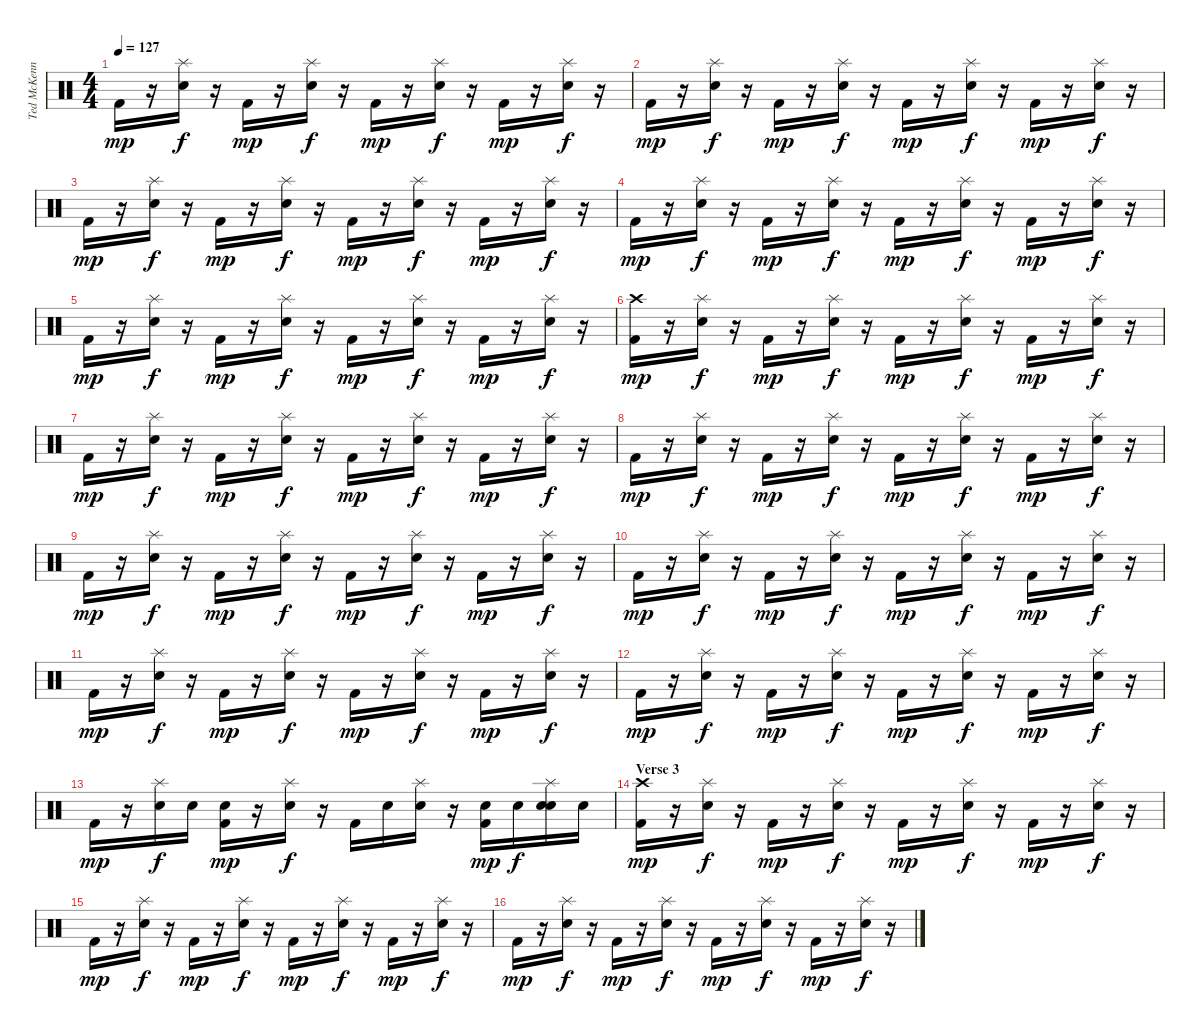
\track ("Ted McKenna" "Ted McKenn") {instrument percussion}
\staff {score}
\articulation defaults
\ts (4 4)
\tempo 127
\clef neutral
\ks c "Kick (hit) 2".16{dy mp}
r.16 ("Splash (hit)" "Snare (hit) 2").16{dy f} r.16 "Kick (hit) 2".16{dy mp} r.16 ("Splash (hit)" "Snare (hit) 2").16{dy f} r.16 "Kick (hit) 2".16{dy mp} r.16 ("Splash (hit)" "Snare (hit) 2").16{dy f} r.16 "Kick (hit) 2".16{dy mp} r.16 ("Splash (hit)" "Snare (hit) 2").16{dy f} r.16 |
"Kick (hit) 2".16{dy mp} r.16 ("Splash (hit)" "Snare (hit) 2").16{dy f} r.16 "Kick (hit) 2".16{dy mp} r.16 ("Splash (hit)" "Snare (hit) 2").16{dy f} r.16 "Kick (hit) 2".16{dy mp} r.16 ("Splash (hit)" "Snare (hit) 2").16{dy f} r.16 "Kick (hit) 2".16{dy mp} r.16 ("Splash (hit)" "Snare (hit) 2").16{dy f} r.16 |
"Kick (hit) 2".16{dy mp} r.16 ("Splash (hit)" "Snare (hit) 2").16{dy f} r.16 "Kick (hit) 2".16{dy mp} r.16 ("Splash (hit)" "Snare (hit) 2").16{dy f} r.16 "Kick (hit) 2".16{dy mp} r.16 ("Splash (hit)" "Snare (hit) 2").16{dy f} r.16 "Kick (hit) 2".16{dy mp} r.16 ("Splash (hit)" "Snare (hit) 2").16{dy f} r.16 |
"Kick (hit) 2".16{dy mp} r.16 ("Splash (hit)" "Snare (hit) 2").16{dy f} r.16 "Kick (hit) 2".16{dy mp} r.16 ("Splash (hit)" "Snare (hit) 2").16{dy f} r.16 "Kick (hit) 2".16{dy mp} r.16 ("Splash (hit)" "Snare (hit) 2").16{dy f} r.16 "Kick (hit) 2".16{dy mp} r.16 ("Splash (hit)" "Snare (hit) 2").16{dy f} r.16 |
"Kick (hit) 2".16{dy mp} r.16 ("Splash (hit)" "Snare (hit) 2").16{dy f} r.16 "Kick (hit) 2".16{dy mp} r.16 ("Splash (hit)" "Snare (hit) 2").16{dy f} r.16 "Kick (hit) 2".16{dy mp} r.16 ("Splash (hit)" "Snare (hit) 2").16{dy f} r.16 "Kick (hit) 2".16{dy mp} r.16 ("Splash (hit)" "Snare (hit) 2").16{dy f} r.16 |
("Crash high (hit)" "Kick (hit) 2").16{dy mp} r.16 ("Splash (hit)" "Snare (hit) 2").16{dy f} r.16 "Kick (hit) 2".16{dy mp} r.16 ("Splash (hit)" "Snare (hit) 2").16{dy f} r.16 "Kick (hit) 2".16{dy mp} r.16 ("Splash (hit)" "Snare (hit) 2").16{dy f} r.16 "Kick (hit) 2".16{dy mp} r.16 ("Splash (hit)" "Snare (hit) 2").16{dy f} r.16 |
"Kick (hit) 2".16{dy mp} r.16 ("Splash (hit)" "Snare (hit) 2").16{dy f} r.16 "Kick (hit) 2".16{dy mp} r.16 ("Splash (hit)" "Snare (hit) 2").16{dy f} r.16 "Kick (hit) 2".16{dy mp} r.16 ("Splash (hit)" "Snare (hit) 2").16{dy f} r.16 "Kick (hit) 2".16{dy mp} r.16 ("Splash (hit)" "Snare (hit) 2").16{dy f} r.16 |
"Kick (hit) 2".16{dy mp} r.16 ("Splash (hit)" "Snare (hit) 2").16{dy f} r.16 "Kick (hit) 2".16{dy mp} r.16 ("Splash (hit)" "Snare (hit) 2").16{dy f} r.16 "Kick (hit) 2".16{dy mp} r.16 ("Splash (hit)" "Snare (hit) 2").16{dy f} r.16 "Kick (hit) 2".16{dy mp} r.16 ("Splash (hit)" "Snare (hit) 2").16{dy f} r.16 |
"Kick (hit) 2".16{dy mp} r.16 ("Splash (hit)" "Snare (hit) 2").16{dy f} r.16 "Kick (hit) 2".16{dy mp} r.16 ("Splash (hit)" "Snare (hit) 2").16{dy f} r.16 "Kick (hit) 2".16{dy mp} r.16 ("Splash (hit)" "Snare (hit) 2").16{dy f} r.16 "Kick (hit) 2".16{dy mp} r.16 ("Splash (hit)" "Snare (hit) 2").16{dy f} r.16 |
"Kick (hit) 2".16{dy mp} r.16 ("Splash (hit)" "Snare (hit) 2").16{dy f} r.16 "Kick (hit) 2".16{dy mp} r.16 ("Splash (hit)" "Snare (hit) 2").16{dy f} r.16 "Kick (hit) 2".16{dy mp} r.16 ("Splash (hit)" "Snare (hit) 2").16{dy f} r.16 "Kick (hit) 2".16{dy mp} r.16 ("Splash (hit)" "Snare (hit) 2").16{dy f} r.16 |
"Kick (hit) 2".16{dy mp} r.16 ("Splash (hit)" "Snare (hit) 2").16{dy f} r.16 "Kick (hit) 2".16{dy mp} r.16 ("Splash (hit)" "Snare (hit) 2").16{dy f} r.16 "Kick (hit) 2".16{dy mp} r.16 ("Splash (hit)" "Snare (hit) 2").16{dy f} r.16 "Kick (hit) 2".16{dy mp} r.16 ("Splash (hit)" "Snare (hit) 2").16{dy f} r.16 |
"Kick (hit) 2".16{dy mp} r.16 ("Splash (hit)" "Snare (hit) 2").16{dy f} r.16 "Kick (hit) 2".16{dy mp} r.16 ("Splash (hit)" "Snare (hit) 2").16{dy f} r.16 "Kick (hit) 2".16{dy mp} r.16 ("Splash (hit)" "Snare (hit) 2").16{dy f} r.16 "Kick (hit) 2".16{dy mp} r.16 ("Splash (hit)" "Snare (hit) 2").16{dy f} r.16 |
"Kick (hit) 2".16{dy mp} r.16 ("Splash (hit)" "Snare (hit) 2").16{dy f} "Electric Snare (hit)".16 ("Electric Snare (hit)" "Kick (hit) 2").16{dy mp} r.16 ("Splash (hit)" "Snare (hit) 2").16{dy f} r.16 "Kick (hit) 2".16 "Electric Snare (hit)".16 ("Splash (hit)" "Electric Snare (hit)").16 r.16 ("Electric Snare (hit)" "Kick (hit) 2").16{dy mp} "Electric Snare (hit)".16{dy f} ("Splash (hit)" "Snare (hit) 2" "Electric Snare (hit)").16 "Electric Snare (hit)".16 |
\section ("" "Verse 3")
("Crash high (hit)" "Kick (hit) 2").16{dy mp} r.16 ("Splash (hit)" "Snare (hit) 2").16{dy f} r.16 "Kick (hit) 2".16{dy mp} r.16 ("Splash (hit)" "Snare (hit) 2").16{dy f} r.16 "Kick (hit) 2".16{dy mp} r.16 ("Splash (hit)" "Snare (hit) 2").16{dy f} r.16 "Kick (hit) 2".16{dy mp} r.16 ("Splash (hit)" "Snare (hit) 2").16{dy f} r.16 |
"Kick (hit) 2".16{dy mp} r.16 ("Splash (hit)" "Snare (hit) 2").16{dy f} r.16 "Kick (hit) 2".16{dy mp} r.16 ("Splash (hit)" "Snare (hit) 2").16{dy f} r.16 "Kick (hit) 2".16{dy mp} r.16 ("Splash (hit)" "Snare (hit) 2").16{dy f} r.16 "Kick (hit) 2".16{dy mp} r.16 ("Splash (hit)" "Snare (hit) 2").16{dy f} r.16 |
"Kick (hit) 2".16{dy mp} r.16 ("Splash (hit)" "Snare (hit) 2").16{dy f} r.16 "Kick (hit) 2".16{dy mp} r.16 ("Splash (hit)" "Snare (hit) 2").16{dy f} r.16 "Kick (hit) 2".16{dy mp} r.16 ("Splash (hit)" "Snare (hit) 2").16{dy f} r.16 "Kick (hit) 2".16{dy mp} r.16 ("Splash (hit)" "Snare (hit) 2").16{dy f} r.16
